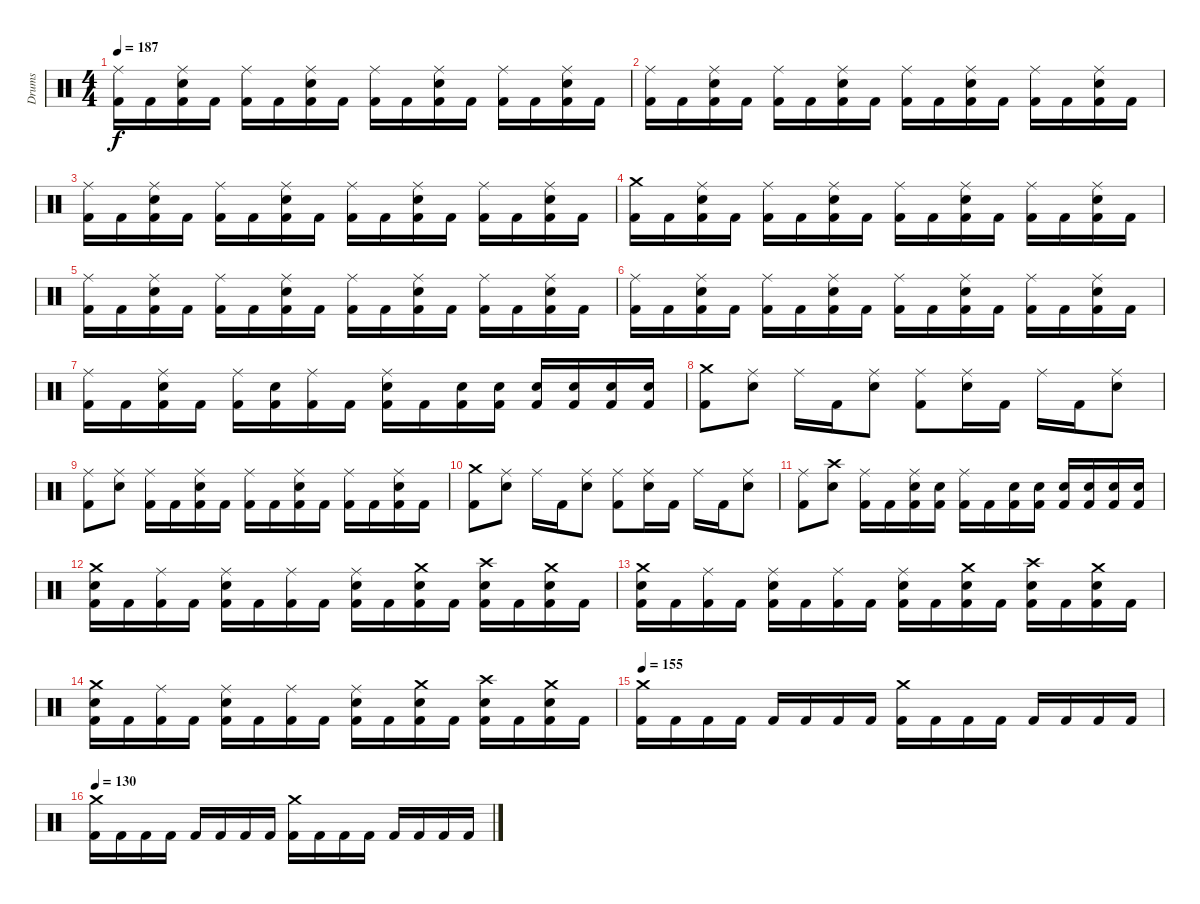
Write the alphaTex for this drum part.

\track ("Drums" "Drums") {instrument percussion}
\staff {score}
\articulation defaults
\ts (4 4)
\tempo 187
\clef neutral
\ks c
("Ride (middle)" "Kick (hit) 2").16{dy f} "Kick (hit) 2".16 ("Ride (middle)" "Snare (hit) 2" "Kick (hit) 2").16 "Kick (hit) 2".16 ("Ride (middle)" "Kick (hit) 2").16 "Kick (hit) 2".16 ("Ride (middle)" "Snare (hit) 2" "Kick (hit) 2").16 "Kick (hit) 2".16 ("Ride (middle)" "Kick (hit) 2").16 "Kick (hit) 2".16 ("Ride (middle)" "Snare (hit) 2" "Kick (hit) 2").16 "Kick (hit) 2".16 ("Ride (middle)" "Kick (hit) 2").16 "Kick (hit) 2".16 ("Ride (middle)" "Snare (hit) 2" "Kick (hit) 2").16 "Kick (hit) 2".16 |
("Ride (middle)" "Kick (hit) 2").16 "Kick (hit) 2".16 ("Ride (middle)" "Snare (hit) 2" "Kick (hit) 2").16 "Kick (hit) 2".16 ("Ride (middle)" "Kick (hit) 2").16 "Kick (hit) 2".16 ("Ride (middle)" "Snare (hit) 2" "Kick (hit) 2").16 "Kick (hit) 2".16 ("Ride (middle)" "Kick (hit) 2").16 "Kick (hit) 2".16 ("Ride (middle)" "Snare (hit) 2" "Kick (hit) 2").16 "Kick (hit) 2".16 ("Ride (middle)" "Kick (hit) 2").16 "Kick (hit) 2".16 ("Ride (middle)" "Snare (hit) 2" "Kick (hit) 2").16 "Kick (hit) 2".16 |
("Ride (middle)" "Kick (hit) 2").16 "Kick (hit) 2".16 ("Ride (middle)" "Snare (hit) 2" "Kick (hit) 2").16 "Kick (hit) 2".16 ("Ride (middle)" "Kick (hit) 2").16 "Kick (hit) 2".16 ("Ride (middle)" "Snare (hit) 2" "Kick (hit) 2").16 "Kick (hit) 2".16 ("Ride (middle)" "Kick (hit) 2").16 "Kick (hit) 2".16 ("Ride (middle)" "Snare (hit) 2" "Kick (hit) 2").16 "Kick (hit) 2".16 ("Ride (middle)" "Kick (hit) 2").16 "Kick (hit) 2".16 ("Ride (middle)" "Snare (hit) 2" "Kick (hit) 2").16 "Kick (hit) 2".16 |
("Crash medium (hit)" "Kick (hit) 2").16 "Kick (hit) 2".16 ("Ride (middle)" "Snare (hit) 2" "Kick (hit) 2").16 "Kick (hit) 2".16 ("Ride (middle)" "Kick (hit) 2").16 "Kick (hit) 2".16 ("Ride (middle)" "Snare (hit) 2" "Kick (hit) 2").16 "Kick (hit) 2".16 ("Ride (middle)" "Kick (hit) 2").16 "Kick (hit) 2".16 ("Ride (middle)" "Snare (hit) 2" "Kick (hit) 2").16 "Kick (hit) 2".16 ("Ride (middle)" "Kick (hit) 2").16 "Kick (hit) 2".16 ("Ride (middle)" "Snare (hit) 2" "Kick (hit) 2").16 "Kick (hit) 2".16 |
("Ride (middle)" "Kick (hit) 2").16 "Kick (hit) 2".16 ("Ride (middle)" "Snare (hit) 2" "Kick (hit) 2").16 "Kick (hit) 2".16 ("Ride (middle)" "Kick (hit) 2").16 "Kick (hit) 2".16 ("Ride (middle)" "Snare (hit) 2" "Kick (hit) 2").16 "Kick (hit) 2".16 ("Ride (middle)" "Kick (hit) 2").16 "Kick (hit) 2".16 ("Ride (middle)" "Snare (hit) 2" "Kick (hit) 2").16 "Kick (hit) 2".16 ("Ride (middle)" "Kick (hit) 2").16 "Kick (hit) 2".16 ("Ride (middle)" "Snare (hit) 2" "Kick (hit) 2").16 "Kick (hit) 2".16 |
("Ride (middle)" "Kick (hit) 2").16 "Kick (hit) 2".16 ("Ride (middle)" "Snare (hit) 2" "Kick (hit) 2").16 "Kick (hit) 2".16 ("Ride (middle)" "Kick (hit) 2").16 "Kick (hit) 2".16 ("Ride (middle)" "Snare (hit) 2" "Kick (hit) 2").16 "Kick (hit) 2".16 ("Ride (middle)" "Kick (hit) 2").16 "Kick (hit) 2".16 ("Ride (middle)" "Snare (hit) 2" "Kick (hit) 2").16 "Kick (hit) 2".16 ("Ride (middle)" "Kick (hit) 2").16 "Kick (hit) 2".16 ("Ride (middle)" "Snare (hit) 2" "Kick (hit) 2").16 "Kick (hit) 2".16 |
("Ride (middle)" "Kick (hit) 2").16 "Kick (hit) 2".16 ("Ride (middle)" "Snare (hit) 2" "Kick (hit) 2").16 "Kick (hit) 2".16 ("Ride (middle)" "Kick (hit) 2").16 ("Snare (hit) 2" "Kick (hit) 2").16 ("Ride (middle)" "Kick (hit) 2").16 "Kick (hit) 2".16 ("Ride (middle)" "Snare (hit) 2" "Kick (hit) 2").16 "Kick (hit) 2".16 ("Snare (hit) 2" "Kick (hit) 2").16 ("Snare (hit) 2" "Kick (hit) 2").16 ("Snare (hit) 2" "Kick (hit) 2").16 ("Snare (hit) 2" "Kick (hit) 2").16 ("Snare (hit) 2" "Kick (hit) 2").16 ("Snare (hit) 2" "Kick (hit) 2").16 |
("Crash medium (hit)" "Kick (hit) 2").8 ("Ride (middle)" "Snare (hit) 2").8 "Ride (middle)".16 "Kick (hit) 2".16 ("Ride (middle)" "Snare (hit) 2").8 ("Ride (middle)" "Kick (hit) 2").8 ("Ride (middle)" "Snare (hit) 2").16 "Kick (hit) 2".16 "Ride (middle)".16 "Kick (hit) 2".16 ("Ride (middle)" "Snare (hit) 2").8 |
("Ride (middle)" "Kick (hit) 2").8 ("Ride (middle)" "Snare (hit) 2").8 ("Ride (middle)" "Kick (hit) 2").16 "Kick (hit) 2".16 ("Ride (middle)" "Snare (hit) 2" "Kick (hit) 2").16 "Kick (hit) 2".16 ("Ride (middle)" "Kick (hit) 2").16 "Kick (hit) 2".16 ("Ride (middle)" "Snare (hit) 2" "Kick (hit) 2").16 "Kick (hit) 2".16 ("Ride (middle)" "Kick (hit) 2").16 "Kick (hit) 2".16 ("Ride (middle)" "Snare (hit) 2" "Kick (hit) 2").16 "Kick (hit) 2".16 |
("Crash medium (hit)" "Kick (hit) 2").8 ("Ride (middle)" "Snare (hit) 2").8 "Ride (middle)".16 "Kick (hit) 2".16 ("Ride (middle)" "Snare (hit) 2").8 ("Ride (middle)" "Kick (hit) 2").8 ("Ride (middle)" "Snare (hit) 2").16 "Kick (hit) 2".16 "Ride (middle)".16 "Kick (hit) 2".16 ("Ride (middle)" "Snare (hit) 2").8 |
("Ride (middle)" "Kick (hit) 2").8 ("Crash high (hit)" "Snare (hit) 2").8 ("Ride (middle)" "Kick (hit) 2").16 "Kick (hit) 2".16 ("Ride (middle)" "Snare (hit) 2" "Kick (hit) 2").16 ("Snare (hit) 2" "Kick (hit) 2").16 ("Ride (middle)" "Kick (hit) 2").16 "Kick (hit) 2".16 ("Snare (hit) 2" "Kick (hit) 2").16 ("Snare (hit) 2" "Kick (hit) 2").16 ("Snare (hit) 2" "Kick (hit) 2").16 ("Snare (hit) 2" "Kick (hit) 2").16 ("Snare (hit) 2" "Kick (hit) 2").16 ("Snare (hit) 2" "Kick (hit) 2").16 |
("Crash medium (hit)" "Snare (hit) 2" "Kick (hit) 2").16 "Kick (hit) 2".16 ("Ride (middle)" "Kick (hit) 2").16 "Kick (hit) 2".16 ("Ride (middle)" "Snare (hit) 2" "Kick (hit) 2").16 "Kick (hit) 2".16 ("Ride (middle)" "Kick (hit) 2").16 "Kick (hit) 2".16 ("Ride (middle)" "Snare (hit) 2" "Kick (hit) 2").16 "Kick (hit) 2".16 ("Crash medium (hit)" "Snare (hit) 2" "Kick (hit) 2").16 "Kick (hit) 2".16 ("Crash high (hit)" "Snare (hit) 2" "Kick (hit) 2").16 "Kick (hit) 2".16 ("Crash medium (hit)" "Snare (hit) 2" "Kick (hit) 2").16 "Kick (hit) 2".16 |
("Crash medium (hit)" "Snare (hit) 2" "Kick (hit) 2").16 "Kick (hit) 2".16 ("Ride (middle)" "Kick (hit) 2").16 "Kick (hit) 2".16 ("Ride (middle)" "Snare (hit) 2" "Kick (hit) 2").16 "Kick (hit) 2".16 ("Ride (middle)" "Kick (hit) 2").16 "Kick (hit) 2".16 ("Ride (middle)" "Snare (hit) 2" "Kick (hit) 2").16 "Kick (hit) 2".16 ("Crash medium (hit)" "Snare (hit) 2" "Kick (hit) 2").16 "Kick (hit) 2".16 ("Crash high (hit)" "Snare (hit) 2" "Kick (hit) 2").16 "Kick (hit) 2".16 ("Crash medium (hit)" "Snare (hit) 2" "Kick (hit) 2").16 "Kick (hit) 2".16 |
("Crash medium (hit)" "Snare (hit) 2" "Kick (hit) 2").16 "Kick (hit) 2".16 ("Ride (middle)" "Kick (hit) 2").16 "Kick (hit) 2".16 ("Ride (middle)" "Snare (hit) 2" "Kick (hit) 2").16 "Kick (hit) 2".16 ("Ride (middle)" "Kick (hit) 2").16 "Kick (hit) 2".16 ("Ride (middle)" "Snare (hit) 2" "Kick (hit) 2").16 "Kick (hit) 2".16 ("Crash medium (hit)" "Snare (hit) 2" "Kick (hit) 2").16 "Kick (hit) 2".16 ("Crash high (hit)" "Snare (hit) 2" "Kick (hit) 2").16 "Kick (hit) 2".16 ("Crash medium (hit)" "Snare (hit) 2" "Kick (hit) 2").16 "Kick (hit) 2".16 |
\tempo 155
("Crash medium (hit)" "Kick (hit) 2").16 "Kick (hit) 2".16 "Kick (hit) 2".16 "Kick (hit) 2".16 "Kick (hit) 2".16 "Kick (hit) 2".16 "Kick (hit) 2".16 "Kick (hit) 2".16 ("Crash medium (hit)" "Kick (hit) 2").16 "Kick (hit) 2".16 "Kick (hit) 2".16 "Kick (hit) 2".16 "Kick (hit) 2".16 "Kick (hit) 2".16 "Kick (hit) 2".16 "Kick (hit) 2".16 |
\tempo 130
("Crash medium (hit)" "Kick (hit) 2").16 "Kick (hit) 2".16 "Kick (hit) 2".16 "Kick (hit) 2".16 "Kick (hit) 2".16 "Kick (hit) 2".16 "Kick (hit) 2".16 "Kick (hit) 2".16 ("Crash medium (hit)" "Kick (hit) 2").16 "Kick (hit) 2".16 "Kick (hit) 2".16 "Kick (hit) 2".16 "Kick (hit) 2".16 "Kick (hit) 2".16 "Kick (hit) 2".16 "Kick (hit) 2".16
